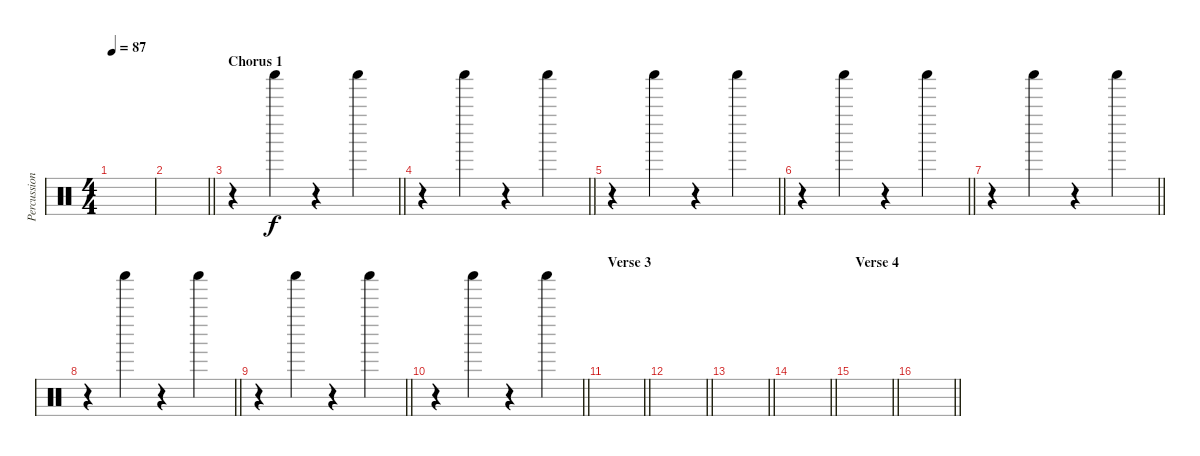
\track ("Percussion" "Percussion") {instrument percussion}
\staff {score}
\articulation defaults
\ts (4 4)
\tempo 87
\clef neutral
\ks c
|
\barLineRight lightlight
|
\section ("" "Chorus 1")
\barLineRight lightlight
r.4 "Shaker (hit)".4 r.4 "Shaker (hit)".4 |
\barLineRight lightlight
r.4 "Shaker (hit)".4 r.4 "Shaker (hit)".4 |
\barLineRight lightlight
r.4 "Shaker (hit)".4 r.4 "Shaker (hit)".4 |
\barLineRight lightlight
r.4 "Shaker (hit)".4 r.4 "Shaker (hit)".4 |
\barLineRight lightlight
r.4 "Shaker (hit)".4 r.4 "Shaker (hit)".4 |
\barLineRight lightlight
r.4 "Shaker (hit)".4 r.4 "Shaker (hit)".4 |
\barLineRight lightlight
r.4 "Shaker (hit)".4 r.4 "Shaker (hit)".4 |
\barLineRight lightlight
r.4 "Shaker (hit)".4 r.4 "Shaker (hit)".4 |
\section ("" "Verse 3")
\barLineRight lightlight
|
\barLineRight lightlight
|
\barLineRight lightlight
|
\barLineRight lightlight
|
\section ("" "Verse 4")
\barLineRight lightlight
|
\barLineRight lightlight
